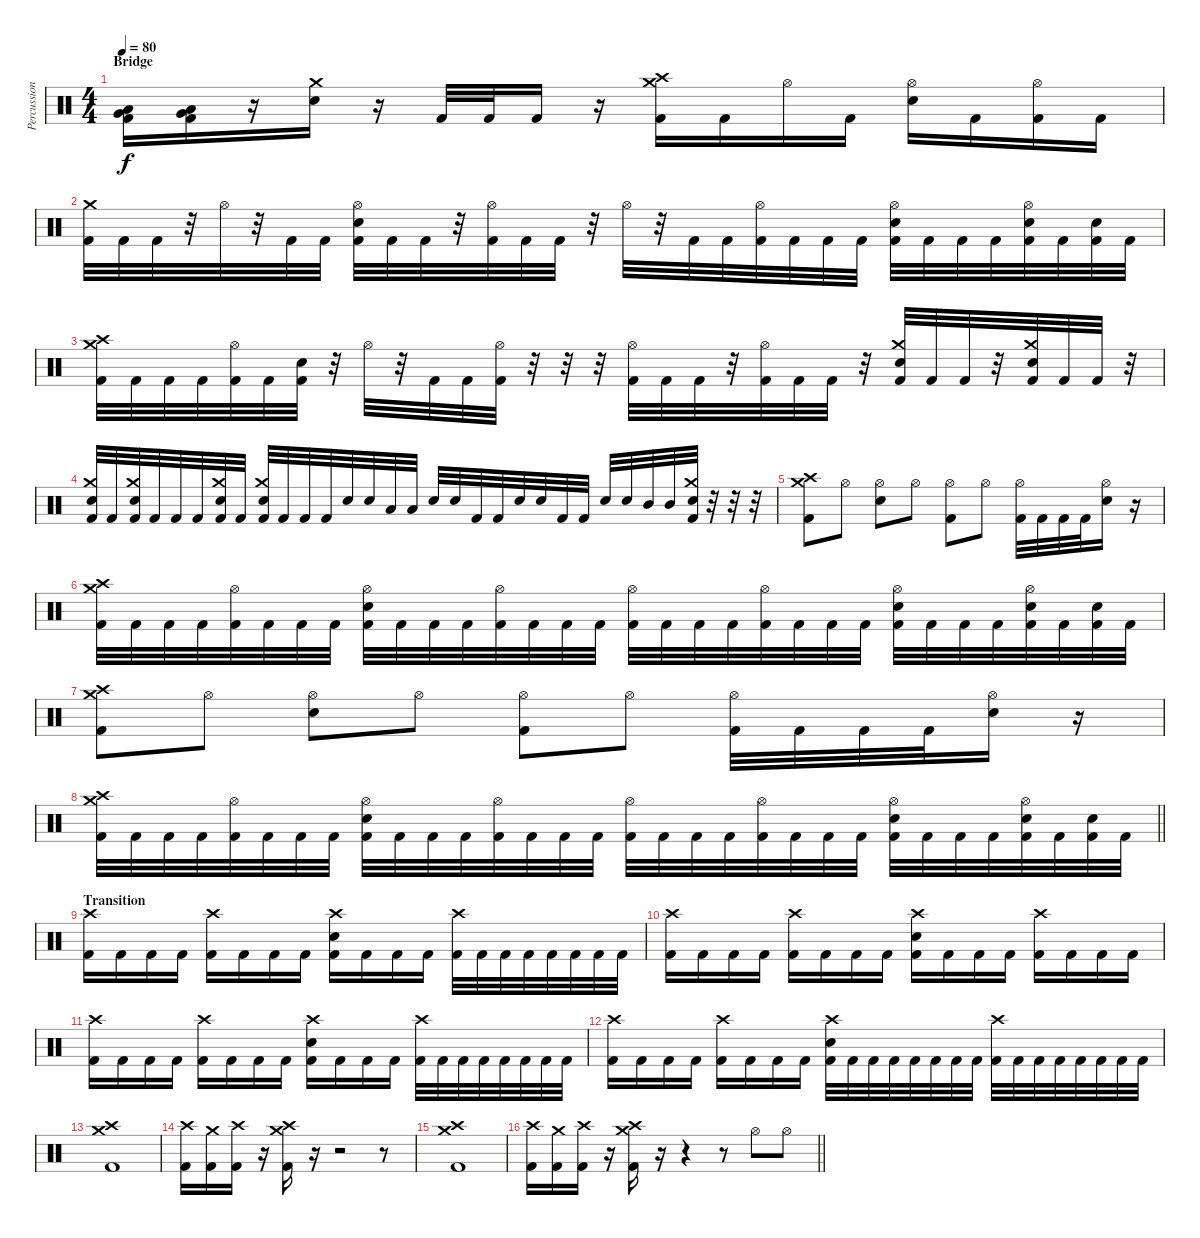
\track ("Percussion" "Percussion") {instrument percussion}
\staff {score}
\articulation defaults
\ts (4 4)
\section ("" "Bridge")
\tempo 80
\clef neutral
\ks c
("Low Floor Tom (hit)" "Very Low Tom (hit)" "Kick (hit) 2").16{dy f} ("Low Floor Tom (hit)" "Very Low Tom (hit)" "Kick (hit) 2").16 r.16 ("Crash medium (hit)" "Snare (hit) 2").16 r.16 "Kick (hit) 2".32 "Kick (hit) 2".32 "Kick (hit) 2".16 r.16 ("Crash high (hit)" "Crash medium (hit)" "Kick (hit) 2").16 "Kick (hit) 2".16 "Hi-Hat (open)".16 "Kick (hit) 2".16 ("Hi-Hat (open)" "Snare (hit) 2").16 "Kick (hit) 2".16 ("Hi-Hat (open)" "Kick (hit) 2").16 "Kick (hit) 2".16 |
("Crash medium (hit)" "Kick (hit) 2").32 "Kick (hit) 2".32 "Kick (hit) 2".32 r.32 "Hi-Hat (open)".32 r.32 "Kick (hit) 2".32 "Kick (hit) 2".32 ("Hi-Hat (open)" "Snare (hit) 2" "Kick (hit) 2").32 "Kick (hit) 2".32 "Kick (hit) 2".32 r.32 ("Hi-Hat (open)" "Kick (hit) 2").32 "Kick (hit) 2".32 "Kick (hit) 2".32 r.32 "Hi-Hat (open)".32 r.32 "Kick (hit) 2".32 "Kick (hit) 2".32 ("Hi-Hat (open)" "Kick (hit) 2").32 "Kick (hit) 2".32 "Kick (hit) 2".32 "Kick (hit) 2".32 ("Hi-Hat (open)" "Snare (hit) 2" "Kick (hit) 2").32 "Kick (hit) 2".32 "Kick (hit) 2".32 "Kick (hit) 2".32 ("Hi-Hat (open)" "Snare (hit) 2" "Kick (hit) 2").32 "Kick (hit) 2".32 ("Snare (hit) 2" "Kick (hit) 2").32 "Kick (hit) 2".32 |
("Crash high (hit)" "Crash medium (hit)" "Kick (hit) 2").32 "Kick (hit) 2".32 "Kick (hit) 2".32 "Kick (hit) 2".32 ("Hi-Hat (open)" "Kick (hit) 2").32 "Kick (hit) 2".32 ("Snare (hit) 2" "Kick (hit) 2").32 r.32 "Hi-Hat (open)".32 r.32 "Kick (hit) 2".32 "Kick (hit) 2".32 ("Hi-Hat (open)" "Kick (hit) 2").32 r.32 r.32 r.32 ("Hi-Hat (open)" "Kick (hit) 2").32 "Kick (hit) 2".32 "Kick (hit) 2".32 r.32 ("Hi-Hat (open)" "Kick (hit) 2").32 "Kick (hit) 2".32 "Kick (hit) 2".32 r.32 ("Crash medium (hit)" "Snare (hit) 2" "Kick (hit) 2").32 "Kick (hit) 2".32 "Kick (hit) 2".32 r.32 ("Crash medium (hit)" "Snare (hit) 2" "Kick (hit) 2").32 "Kick (hit) 2".32 "Kick (hit) 2".32 r.32 |
("Crash medium (hit)" "Snare (hit) 2" "Kick (hit) 2").32 "Kick (hit) 2".32 ("Crash medium (hit)" "Snare (hit) 2" "Kick (hit) 2").32 "Kick (hit) 2".32 "Kick (hit) 2".32 "Kick (hit) 2".32 ("Crash medium (hit)" "Snare (hit) 2" "Kick (hit) 2").32 "Kick (hit) 2".32 ("Crash medium (hit)" "Snare (hit) 2" "Kick (hit) 2").32 "Kick (hit) 2".32 "Kick (hit) 2".32 "Kick (hit) 2".32 "Snare (hit) 2".32 "Snare (hit) 2".32 "Low Tom (hit)".32 "Low Tom (hit)".32 "Snare (hit) 2".32 "Snare (hit) 2".32 "Kick (hit) 2".32 "Kick (hit) 2".32 "Snare (hit) 2".32 "Snare (hit) 2".32 "Kick (hit) 2".32 "Kick (hit) 2".32 "Snare (hit) 2".32 "Snare (hit) 2".32 "Mid Tom (hit)".32 "Mid Tom (hit)".32 ("Crash medium (hit)" "Snare (hit) 2" "Kick (hit) 2").32 r.32 r.32 r.32 |
("Crash high (hit)" "Crash medium (hit)" "Kick (hit) 2").8 "Hi-Hat (open)".8 ("Hi-Hat (open)" "Snare (hit) 2").8 "Hi-Hat (open)".8 ("Hi-Hat (open)" "Kick (hit) 2").8 "Hi-Hat (open)".8 ("Hi-Hat (open)" "Kick (hit) 2").32 "Kick (hit) 2".32 "Kick (hit) 2".32 "Kick (hit) 2".32 ("Hi-Hat (open)" "Snare (hit) 2").16 r.16 |
("Crash high (hit)" "Crash medium (hit)" "Kick (hit) 2").32 "Kick (hit) 2".32 "Kick (hit) 2".32 "Kick (hit) 2".32 ("Hi-Hat (open)" "Kick (hit) 2").32 "Kick (hit) 2".32 "Kick (hit) 2".32 "Kick (hit) 2".32 ("Hi-Hat (open)" "Snare (hit) 2" "Kick (hit) 2").32 "Kick (hit) 2".32 "Kick (hit) 2".32 "Kick (hit) 2".32 ("Hi-Hat (open)" "Kick (hit) 2").32 "Kick (hit) 2".32 "Kick (hit) 2".32 "Kick (hit) 2".32 ("Hi-Hat (open)" "Kick (hit) 2").32 "Kick (hit) 2".32 "Kick (hit) 2".32 "Kick (hit) 2".32 ("Hi-Hat (open)" "Kick (hit) 2").32 "Kick (hit) 2".32 "Kick (hit) 2".32 "Kick (hit) 2".32 ("Hi-Hat (open)" "Snare (hit) 2" "Kick (hit) 2").32 "Kick (hit) 2".32 "Kick (hit) 2".32 "Kick (hit) 2".32 ("Hi-Hat (open)" "Snare (hit) 2" "Kick (hit) 2").32 "Kick (hit) 2".32 ("Snare (hit) 2" "Kick (hit) 2").32 "Kick (hit) 2".32 |
("Crash high (hit)" "Crash medium (hit)" "Kick (hit) 2").8 "Hi-Hat (open)".8 ("Hi-Hat (open)" "Snare (hit) 2").8 "Hi-Hat (open)".8 ("Hi-Hat (open)" "Kick (hit) 2").8 "Hi-Hat (open)".8 ("Hi-Hat (open)" "Kick (hit) 2").32 "Kick (hit) 2".32 "Kick (hit) 2".32 "Kick (hit) 2".32 ("Hi-Hat (open)" "Snare (hit) 2").16 r.16 |
\barLineRight lightlight
("Crash high (hit)" "Crash medium (hit)" "Kick (hit) 2").32 "Kick (hit) 2".32 "Kick (hit) 2".32 "Kick (hit) 2".32 ("Hi-Hat (open)" "Kick (hit) 2").32 "Kick (hit) 2".32 "Kick (hit) 2".32 "Kick (hit) 2".32 ("Hi-Hat (open)" "Snare (hit) 2" "Kick (hit) 2").32 "Kick (hit) 2".32 "Kick (hit) 2".32 "Kick (hit) 2".32 ("Hi-Hat (open)" "Kick (hit) 2").32 "Kick (hit) 2".32 "Kick (hit) 2".32 "Kick (hit) 2".32 ("Hi-Hat (open)" "Kick (hit) 2").32 "Kick (hit) 2".32 "Kick (hit) 2".32 "Kick (hit) 2".32 ("Hi-Hat (open)" "Kick (hit) 2").32 "Kick (hit) 2".32 "Kick (hit) 2".32 "Kick (hit) 2".32 ("Hi-Hat (open)" "Snare (hit) 2" "Kick (hit) 2").32 "Kick (hit) 2".32 "Kick (hit) 2".32 "Kick (hit) 2".32 ("Hi-Hat (open)" "Snare (hit) 2" "Kick (hit) 2").32 "Kick (hit) 2".32 ("Snare (hit) 2" "Kick (hit) 2").32 "Kick (hit) 2".32 |
\section ("" "Transition")
("Crash high (hit)" "Kick (hit) 2").16 "Kick (hit) 2".16 "Kick (hit) 2".16 "Kick (hit) 2".16 ("Crash high (hit)" "Kick (hit) 2").16 "Kick (hit) 2".16 "Kick (hit) 2".16 "Kick (hit) 2".16 ("Crash high (hit)" "Snare (hit) 2" "Kick (hit) 2").16 "Kick (hit) 2".16 "Kick (hit) 2".16 "Kick (hit) 2".16 ("Crash high (hit)" "Kick (hit) 2").32 "Kick (hit) 2".32 "Kick (hit) 2".32 "Kick (hit) 2".32 "Kick (hit) 2".32 "Kick (hit) 2".32 "Kick (hit) 2".32 "Kick (hit) 2".32 |
("Crash high (hit)" "Kick (hit) 2").16 "Kick (hit) 2".16 "Kick (hit) 2".16 "Kick (hit) 2".16 ("Crash high (hit)" "Kick (hit) 2").16 "Kick (hit) 2".16 "Kick (hit) 2".16 "Kick (hit) 2".16 ("Crash high (hit)" "Snare (hit) 2" "Kick (hit) 2").16 "Kick (hit) 2".16 "Kick (hit) 2".16 "Kick (hit) 2".16 ("Crash high (hit)" "Kick (hit) 2").16 "Kick (hit) 2".16 "Kick (hit) 2".16 "Kick (hit) 2".16 |
("Crash high (hit)" "Kick (hit) 2").16 "Kick (hit) 2".16 "Kick (hit) 2".16 "Kick (hit) 2".16 ("Crash high (hit)" "Kick (hit) 2").16 "Kick (hit) 2".16 "Kick (hit) 2".16 "Kick (hit) 2".16 ("Crash high (hit)" "Snare (hit) 2" "Kick (hit) 2").16 "Kick (hit) 2".16 "Kick (hit) 2".16 "Kick (hit) 2".16 ("Crash high (hit)" "Kick (hit) 2").32 "Kick (hit) 2".32 "Kick (hit) 2".32 "Kick (hit) 2".32 "Kick (hit) 2".32 "Kick (hit) 2".32 "Kick (hit) 2".32 "Kick (hit) 2".32 |
("Crash high (hit)" "Kick (hit) 2").16 "Kick (hit) 2".16 "Kick (hit) 2".16 "Kick (hit) 2".16 ("Crash high (hit)" "Kick (hit) 2").16 "Kick (hit) 2".16 "Kick (hit) 2".16 "Kick (hit) 2".16 ("Crash high (hit)" "Snare (hit) 2" "Kick (hit) 2").32 "Kick (hit) 2".32 "Kick (hit) 2".32 "Kick (hit) 2".32 "Kick (hit) 2".32 "Kick (hit) 2".32 "Kick (hit) 2".32 "Kick (hit) 2".32 ("Crash high (hit)" "Kick (hit) 2").32 "Kick (hit) 2".32 "Kick (hit) 2".32 "Kick (hit) 2".32 "Kick (hit) 2".32 "Kick (hit) 2".32 "Kick (hit) 2".32 "Kick (hit) 2".32 |
("Crash high (hit)" "Crash medium (hit)" "Kick (hit) 2").1 |
("Crash high (hit)" "Kick (hit) 2").16 ("Crash medium (hit)" "Kick (hit) 2").16 ("Crash high (hit)" "Kick (hit) 2").16 r.16 ("Crash medium (hit)" "Crash high (hit)" "Kick (hit) 2").16 r.16 r.2 r.8 |
("Crash high (hit)" "Crash medium (hit)" "Kick (hit) 2").1 |
\barLineRight lightlight
("Crash high (hit)" "Kick (hit) 2").16 ("Crash medium (hit)" "Kick (hit) 2").16 ("Crash high (hit)" "Kick (hit) 2").16 r.16 ("Crash medium (hit)" "Crash high (hit)" "Kick (hit) 2").16 r.16 r.4 r.8 "Hi-Hat (open)".8 "Hi-Hat (open)".8
